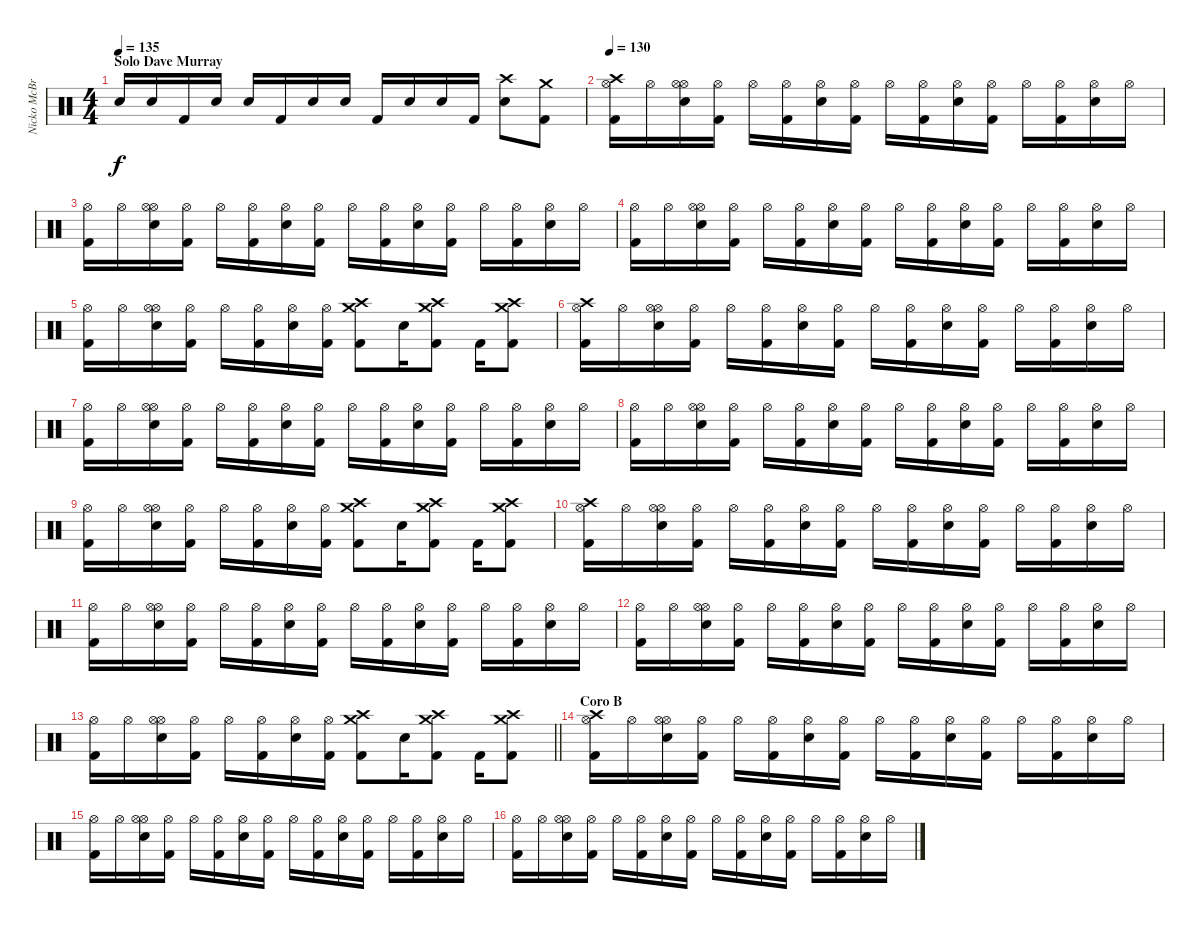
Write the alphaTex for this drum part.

\track ("Nicko McBrain" "Nicko McBr") {instrument percussion}
\staff {score}
\articulation defaults
\ts (4 4)
\section ("" "Solo Dave Murray")
\tempo 135
\clef neutral
\ks c "Snare (hit) 2".16{dy f} "Snare (hit) 2".16 "Kick (hit) 2".16 "Snare (hit) 2".16 "Snare (hit) 2".16 "Kick (hit) 2".16 "Snare (hit) 2".16 "Snare (hit) 2".16 "Kick (hit) 2".16 "Snare (hit) 2".16 "Snare (hit) 2".16 "Kick (hit) 2".16
("Snare (hit) 2" "Crash high (hit)").8 ("Kick (hit) 2" "Crash medium (hit)").8 |
\tempo 130
("Kick (hit) 2" "Hi-Hat (open)" "Crash high (hit)").16 "Hi-Hat (open)".16 ("Snare (hit) 2" "Hi-Hat (open)" "Hi-Hat (open)").16 ("Kick (hit) 2" "Hi-Hat (open)").16 "Hi-Hat (open)".16 ("Kick (hit) 2" "Hi-Hat (open)").16 ("Snare (hit) 2" "Hi-Hat (open)").16 ("Kick (hit) 2" "Hi-Hat (open)").16 "Hi-Hat (open)".16 ("Kick (hit) 2" "Hi-Hat (open)").16 ("Snare (hit) 2" "Hi-Hat (open)").16 ("Kick (hit) 2" "Hi-Hat (open)").16 "Hi-Hat (open)".16 ("Kick (hit) 2" "Hi-Hat (open)").16 ("Snare (hit) 2" "Hi-Hat (open)").16 "Hi-Hat (open)".16 |
("Kick (hit) 2" "Hi-Hat (open)").16 "Hi-Hat (open)".16 ("Snare (hit) 2" "Hi-Hat (open)" "Hi-Hat (open)").16 ("Kick (hit) 2" "Hi-Hat (open)").16 "Hi-Hat (open)".16 ("Kick (hit) 2" "Hi-Hat (open)").16 ("Snare (hit) 2" "Hi-Hat (open)").16 ("Kick (hit) 2" "Hi-Hat (open)").16 "Hi-Hat (open)".16 ("Kick (hit) 2" "Hi-Hat (open)").16 ("Snare (hit) 2" "Hi-Hat (open)").16 ("Kick (hit) 2" "Hi-Hat (open)").16 "Hi-Hat (open)".16 ("Kick (hit) 2" "Hi-Hat (open)").16 ("Snare (hit) 2" "Hi-Hat (open)").16 "Hi-Hat (open)".16 |
("Kick (hit) 2" "Hi-Hat (open)").16 "Hi-Hat (open)".16 ("Snare (hit) 2" "Hi-Hat (open)" "Hi-Hat (open)").16 ("Kick (hit) 2" "Hi-Hat (open)").16 "Hi-Hat (open)".16 ("Kick (hit) 2" "Hi-Hat (open)").16 ("Snare (hit) 2" "Hi-Hat (open)").16 ("Kick (hit) 2" "Hi-Hat (open)").16 "Hi-Hat (open)".16 ("Kick (hit) 2" "Hi-Hat (open)").16 ("Snare (hit) 2" "Hi-Hat (open)").16 ("Kick (hit) 2" "Hi-Hat (open)").16 "Hi-Hat (open)".16 ("Kick (hit) 2" "Hi-Hat (open)").16 ("Snare (hit) 2" "Hi-Hat (open)").16 "Hi-Hat (open)".16 |
("Kick (hit) 2" "Hi-Hat (open)").16 "Hi-Hat (open)".16 ("Snare (hit) 2" "Hi-Hat (open)" "Hi-Hat (open)").16 ("Kick (hit) 2" "Hi-Hat (open)").16 "Hi-Hat (open)".16 ("Kick (hit) 2" "Hi-Hat (open)").16 ("Snare (hit) 2" "Hi-Hat (open)").16 ("Kick (hit) 2" "Hi-Hat (open)").16 ("Crash medium (hit)" "Crash high (hit)" "Kick (hit) 2").8 "Snare (hit) 2".16 ("Crash medium (hit)" "Crash high (hit)" "Kick (hit) 2").8 "Kick (hit) 2".16 ("Crash medium (hit)" "Crash high (hit)" "Kick (hit) 2").8 |
("Kick (hit) 2" "Hi-Hat (open)" "Crash high (hit)").16 "Hi-Hat (open)".16 ("Snare (hit) 2" "Hi-Hat (open)" "Hi-Hat (open)").16 ("Kick (hit) 2" "Hi-Hat (open)").16 "Hi-Hat (open)".16 ("Kick (hit) 2" "Hi-Hat (open)").16 ("Snare (hit) 2" "Hi-Hat (open)").16 ("Kick (hit) 2" "Hi-Hat (open)").16 "Hi-Hat (open)".16 ("Kick (hit) 2" "Hi-Hat (open)").16 ("Snare (hit) 2" "Hi-Hat (open)").16 ("Kick (hit) 2" "Hi-Hat (open)").16 "Hi-Hat (open)".16 ("Kick (hit) 2" "Hi-Hat (open)").16 ("Snare (hit) 2" "Hi-Hat (open)").16 "Hi-Hat (open)".16 |
("Kick (hit) 2" "Hi-Hat (open)").16 "Hi-Hat (open)".16 ("Snare (hit) 2" "Hi-Hat (open)" "Hi-Hat (open)").16 ("Kick (hit) 2" "Hi-Hat (open)").16 "Hi-Hat (open)".16 ("Kick (hit) 2" "Hi-Hat (open)").16 ("Snare (hit) 2" "Hi-Hat (open)").16 ("Kick (hit) 2" "Hi-Hat (open)").16 "Hi-Hat (open)".16 ("Kick (hit) 2" "Hi-Hat (open)").16 ("Snare (hit) 2" "Hi-Hat (open)").16 ("Kick (hit) 2" "Hi-Hat (open)").16 "Hi-Hat (open)".16 ("Kick (hit) 2" "Hi-Hat (open)").16 ("Snare (hit) 2" "Hi-Hat (open)").16 "Hi-Hat (open)".16 |
("Kick (hit) 2" "Hi-Hat (open)").16 "Hi-Hat (open)".16 ("Snare (hit) 2" "Hi-Hat (open)" "Hi-Hat (open)").16 ("Kick (hit) 2" "Hi-Hat (open)").16 "Hi-Hat (open)".16 ("Kick (hit) 2" "Hi-Hat (open)").16 ("Snare (hit) 2" "Hi-Hat (open)").16 ("Kick (hit) 2" "Hi-Hat (open)").16 "Hi-Hat (open)".16 ("Kick (hit) 2" "Hi-Hat (open)").16 ("Snare (hit) 2" "Hi-Hat (open)").16 ("Kick (hit) 2" "Hi-Hat (open)").16 "Hi-Hat (open)".16 ("Kick (hit) 2" "Hi-Hat (open)").16 ("Snare (hit) 2" "Hi-Hat (open)").16 "Hi-Hat (open)".16 |
("Kick (hit) 2" "Hi-Hat (open)").16 "Hi-Hat (open)".16 ("Snare (hit) 2" "Hi-Hat (open)" "Hi-Hat (open)").16 ("Kick (hit) 2" "Hi-Hat (open)").16 "Hi-Hat (open)".16 ("Kick (hit) 2" "Hi-Hat (open)").16 ("Snare (hit) 2" "Hi-Hat (open)").16 ("Kick (hit) 2" "Hi-Hat (open)").16 ("Crash medium (hit)" "Crash high (hit)" "Kick (hit) 2").8 "Snare (hit) 2".16 ("Crash medium (hit)" "Crash high (hit)" "Kick (hit) 2").8 "Kick (hit) 2".16 ("Crash medium (hit)" "Crash high (hit)" "Kick (hit) 2").8 |
("Kick (hit) 2" "Hi-Hat (open)" "Crash high (hit)").16 "Hi-Hat (open)".16 ("Snare (hit) 2" "Hi-Hat (open)" "Hi-Hat (open)").16 ("Kick (hit) 2" "Hi-Hat (open)").16 "Hi-Hat (open)".16 ("Kick (hit) 2" "Hi-Hat (open)").16 ("Snare (hit) 2" "Hi-Hat (open)").16 ("Kick (hit) 2" "Hi-Hat (open)").16 "Hi-Hat (open)".16 ("Kick (hit) 2" "Hi-Hat (open)").16 ("Snare (hit) 2" "Hi-Hat (open)").16 ("Kick (hit) 2" "Hi-Hat (open)").16 "Hi-Hat (open)".16 ("Kick (hit) 2" "Hi-Hat (open)").16 ("Snare (hit) 2" "Hi-Hat (open)").16 "Hi-Hat (open)".16 |
("Kick (hit) 2" "Hi-Hat (open)").16 "Hi-Hat (open)".16 ("Snare (hit) 2" "Hi-Hat (open)" "Hi-Hat (open)").16 ("Kick (hit) 2" "Hi-Hat (open)").16 "Hi-Hat (open)".16 ("Kick (hit) 2" "Hi-Hat (open)").16 ("Snare (hit) 2" "Hi-Hat (open)").16 ("Kick (hit) 2" "Hi-Hat (open)").16 "Hi-Hat (open)".16 ("Kick (hit) 2" "Hi-Hat (open)").16 ("Snare (hit) 2" "Hi-Hat (open)").16 ("Kick (hit) 2" "Hi-Hat (open)").16 "Hi-Hat (open)".16 ("Kick (hit) 2" "Hi-Hat (open)").16 ("Snare (hit) 2" "Hi-Hat (open)").16 "Hi-Hat (open)".16 |
("Kick (hit) 2" "Hi-Hat (open)").16 "Hi-Hat (open)".16 ("Snare (hit) 2" "Hi-Hat (open)" "Hi-Hat (open)").16 ("Kick (hit) 2" "Hi-Hat (open)").16 "Hi-Hat (open)".16 ("Kick (hit) 2" "Hi-Hat (open)").16 ("Snare (hit) 2" "Hi-Hat (open)").16 ("Kick (hit) 2" "Hi-Hat (open)").16 "Hi-Hat (open)".16 ("Kick (hit) 2" "Hi-Hat (open)").16 ("Snare (hit) 2" "Hi-Hat (open)").16 ("Kick (hit) 2" "Hi-Hat (open)").16 "Hi-Hat (open)".16 ("Kick (hit) 2" "Hi-Hat (open)").16 ("Snare (hit) 2" "Hi-Hat (open)").16 "Hi-Hat (open)".16 |
\barLineRight lightlight
("Kick (hit) 2" "Hi-Hat (open)").16 "Hi-Hat (open)".16 ("Snare (hit) 2" "Hi-Hat (open)" "Hi-Hat (open)").16 ("Kick (hit) 2" "Hi-Hat (open)").16 "Hi-Hat (open)".16 ("Kick (hit) 2" "Hi-Hat (open)").16 ("Snare (hit) 2" "Hi-Hat (open)").16 ("Kick (hit) 2" "Hi-Hat (open)").16 ("Crash medium (hit)" "Crash high (hit)" "Kick (hit) 2").8 "Snare (hit) 2".16 ("Crash medium (hit)" "Crash high (hit)" "Kick (hit) 2").8 "Kick (hit) 2".16 ("Crash medium (hit)" "Crash high (hit)" "Kick (hit) 2").8 |
\section ("" "Coro B")
("Kick (hit) 2" "Hi-Hat (open)" "Crash high (hit)").16 "Hi-Hat (open)".16 ("Snare (hit) 2" "Hi-Hat (open)" "Hi-Hat (open)").16 ("Kick (hit) 2" "Hi-Hat (open)").16 "Hi-Hat (open)".16 ("Kick (hit) 2" "Hi-Hat (open)").16 ("Snare (hit) 2" "Hi-Hat (open)").16 ("Kick (hit) 2" "Hi-Hat (open)").16 "Hi-Hat (open)".16 ("Kick (hit) 2" "Hi-Hat (open)").16 ("Snare (hit) 2" "Hi-Hat (open)").16 ("Kick (hit) 2" "Hi-Hat (open)").16 "Hi-Hat (open)".16 ("Kick (hit) 2" "Hi-Hat (open)").16 ("Snare (hit) 2" "Hi-Hat (open)").16 "Hi-Hat (open)".16 |
("Kick (hit) 2" "Hi-Hat (open)").16 "Hi-Hat (open)".16 ("Snare (hit) 2" "Hi-Hat (open)" "Hi-Hat (open)").16 ("Kick (hit) 2" "Hi-Hat (open)").16 "Hi-Hat (open)".16 ("Kick (hit) 2" "Hi-Hat (open)").16 ("Snare (hit) 2" "Hi-Hat (open)").16 ("Kick (hit) 2" "Hi-Hat (open)").16 "Hi-Hat (open)".16 ("Kick (hit) 2" "Hi-Hat (open)").16 ("Snare (hit) 2" "Hi-Hat (open)").16 ("Kick (hit) 2" "Hi-Hat (open)").16 "Hi-Hat (open)".16 ("Kick (hit) 2" "Hi-Hat (open)").16 ("Snare (hit) 2" "Hi-Hat (open)").16 "Hi-Hat (open)".16 |
("Kick (hit) 2" "Hi-Hat (open)").16 "Hi-Hat (open)".16 ("Snare (hit) 2" "Hi-Hat (open)" "Hi-Hat (open)").16 ("Kick (hit) 2" "Hi-Hat (open)").16 "Hi-Hat (open)".16 ("Kick (hit) 2" "Hi-Hat (open)").16 ("Snare (hit) 2" "Hi-Hat (open)").16 ("Kick (hit) 2" "Hi-Hat (open)").16 "Hi-Hat (open)".16 ("Kick (hit) 2" "Hi-Hat (open)").16 ("Snare (hit) 2" "Hi-Hat (open)").16 ("Kick (hit) 2" "Hi-Hat (open)").16 "Hi-Hat (open)".16 ("Kick (hit) 2" "Hi-Hat (open)").16 ("Snare (hit) 2" "Hi-Hat (open)").16 "Hi-Hat (open)".16
